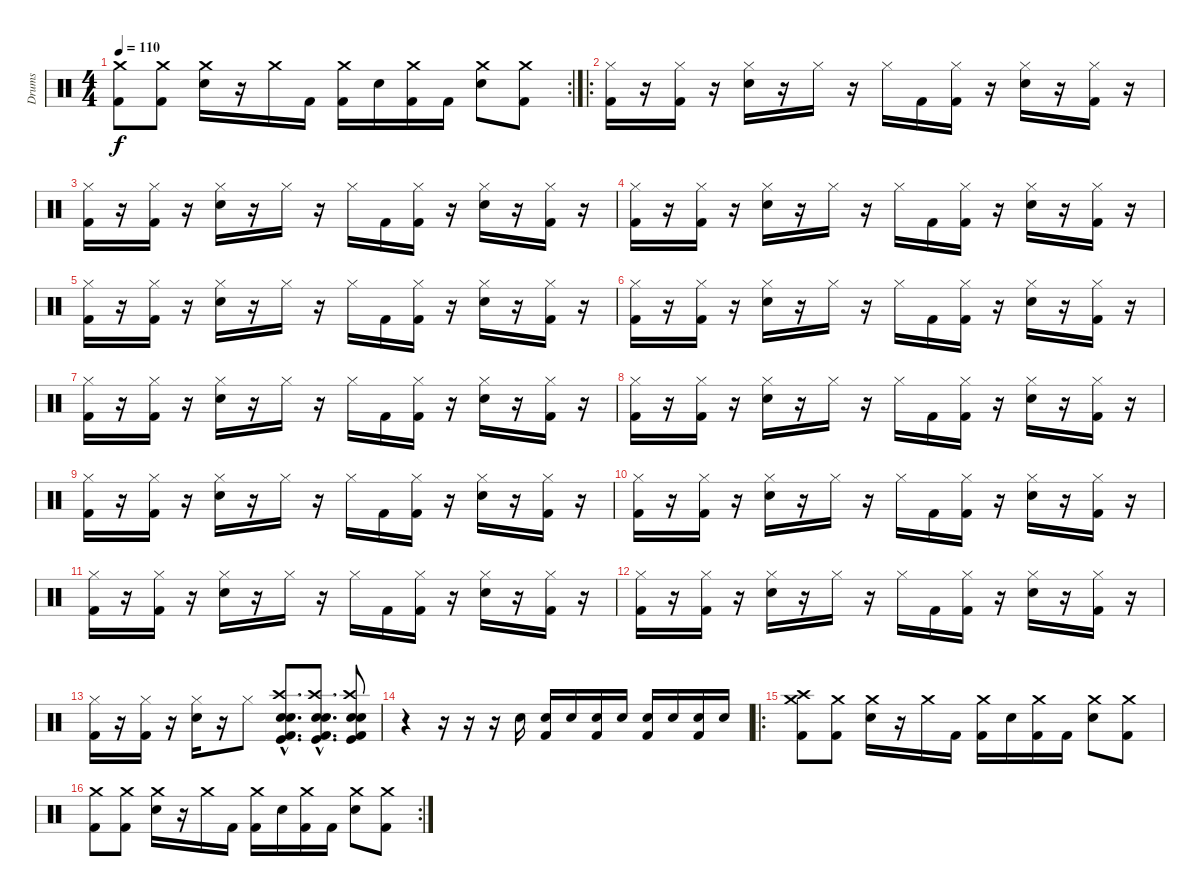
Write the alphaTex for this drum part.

\track ("Drums" "Drums") {instrument percussion}
\staff {score}
\articulation defaults
\rc 2
\ts (4 4)
\tempo 110
\clef neutral
\ks c
("Crash medium (hit)" "Kick (hit) 2").8{dy f} ("Crash medium (hit)" "Kick (hit) 2").8 ("Crash medium (hit)" "Electric Snare (hit)").16 r.16 "Crash medium (hit)".16 "Kick (hit) 2".16 ("Crash medium (hit)" "Kick (hit) 2").16 "Electric Snare (hit)".16 ("Crash medium (hit)" "Kick (hit) 2").16 "Kick (hit) 2".16 ("Crash medium (hit)" "Electric Snare (hit)").8 ("Crash medium (hit)" "Kick (hit) 2").8 |
\ro
("Hi-Hat (closed)" "Kick (hit) 2").16 r.16 ("Hi-Hat (closed)" "Kick (hit) 2").16 r.16 ("Hi-Hat (closed)" "Electric Snare (hit)").16 r.16 "Hi-Hat (closed)".16 r.16 "Hi-Hat (closed)".16 "Kick (hit) 2".16 ("Hi-Hat (closed)" "Kick (hit) 2").16 r.16 ("Hi-Hat (closed)" "Electric Snare (hit)").16 r.16 ("Hi-Hat (closed)" "Kick (hit) 2").16 r.16 |
("Hi-Hat (closed)" "Kick (hit) 2").16 r.16 ("Hi-Hat (closed)" "Kick (hit) 2").16 r.16 ("Hi-Hat (closed)" "Electric Snare (hit)").16 r.16 "Hi-Hat (closed)".16 r.16 "Hi-Hat (closed)".16 "Kick (hit) 2".16 ("Hi-Hat (closed)" "Kick (hit) 2").16 r.16 ("Hi-Hat (closed)" "Electric Snare (hit)").16 r.16 ("Hi-Hat (closed)" "Kick (hit) 2").16 r.16 |
("Hi-Hat (closed)" "Kick (hit) 2").16 r.16 ("Hi-Hat (closed)" "Kick (hit) 2").16 r.16 ("Hi-Hat (closed)" "Electric Snare (hit)").16 r.16 "Hi-Hat (closed)".16 r.16 "Hi-Hat (closed)".16 "Kick (hit) 2".16 ("Hi-Hat (closed)" "Kick (hit) 2").16 r.16 ("Hi-Hat (closed)" "Electric Snare (hit)").16 r.16 ("Hi-Hat (closed)" "Kick (hit) 2").16 r.16 |
("Hi-Hat (closed)" "Kick (hit) 2").16 r.16 ("Hi-Hat (closed)" "Kick (hit) 2").16 r.16 ("Hi-Hat (closed)" "Electric Snare (hit)").16 r.16 "Hi-Hat (closed)".16 r.16 "Hi-Hat (closed)".16 "Kick (hit) 2".16 ("Hi-Hat (closed)" "Kick (hit) 2").16 r.16 ("Hi-Hat (closed)" "Electric Snare (hit)").16 r.16 ("Hi-Hat (closed)" "Kick (hit) 2").16 r.16 |
("Hi-Hat (closed)" "Kick (hit) 2").16 r.16 ("Hi-Hat (closed)" "Kick (hit) 2").16 r.16 ("Hi-Hat (closed)" "Electric Snare (hit)").16 r.16 "Hi-Hat (closed)".16 r.16 "Hi-Hat (closed)".16 "Kick (hit) 2".16 ("Hi-Hat (closed)" "Kick (hit) 2").16 r.16 ("Hi-Hat (closed)" "Electric Snare (hit)").16 r.16 ("Hi-Hat (closed)" "Kick (hit) 2").16 r.16 |
("Hi-Hat (closed)" "Kick (hit) 2").16 r.16 ("Hi-Hat (closed)" "Kick (hit) 2").16 r.16 ("Hi-Hat (closed)" "Electric Snare (hit)").16 r.16 "Hi-Hat (closed)".16 r.16 "Hi-Hat (closed)".16 "Kick (hit) 2".16 ("Hi-Hat (closed)" "Kick (hit) 2").16 r.16 ("Hi-Hat (closed)" "Electric Snare (hit)").16 r.16 ("Hi-Hat (closed)" "Kick (hit) 2").16 r.16 |
("Hi-Hat (closed)" "Kick (hit) 2").16 r.16 ("Hi-Hat (closed)" "Kick (hit) 2").16 r.16 ("Hi-Hat (closed)" "Electric Snare (hit)").16 r.16 "Hi-Hat (closed)".16 r.16 "Hi-Hat (closed)".16 "Kick (hit) 2".16 ("Hi-Hat (closed)" "Kick (hit) 2").16 r.16 ("Hi-Hat (closed)" "Electric Snare (hit)").16 r.16 ("Hi-Hat (closed)" "Kick (hit) 2").16 r.16 |
("Hi-Hat (closed)" "Kick (hit) 2").16 r.16 ("Hi-Hat (closed)" "Kick (hit) 2").16 r.16 ("Hi-Hat (closed)" "Electric Snare (hit)").16 r.16 "Hi-Hat (closed)".16 r.16 "Hi-Hat (closed)".16 "Kick (hit) 2".16 ("Hi-Hat (closed)" "Kick (hit) 2").16 r.16 ("Hi-Hat (closed)" "Electric Snare (hit)").16 r.16 ("Hi-Hat (closed)" "Kick (hit) 2").16 r.16 |
("Hi-Hat (closed)" "Kick (hit) 2").16 r.16 ("Hi-Hat (closed)" "Kick (hit) 2").16 r.16 ("Hi-Hat (closed)" "Electric Snare (hit)").16 r.16 "Hi-Hat (closed)".16 r.16 "Hi-Hat (closed)".16 "Kick (hit) 2".16 ("Hi-Hat (closed)" "Kick (hit) 2").16 r.16 ("Hi-Hat (closed)" "Electric Snare (hit)").16 r.16 ("Hi-Hat (closed)" "Kick (hit) 2").16 r.16 |
("Hi-Hat (closed)" "Kick (hit) 2").16 r.16 ("Hi-Hat (closed)" "Kick (hit) 2").16 r.16 ("Hi-Hat (closed)" "Electric Snare (hit)").16 r.16 "Hi-Hat (closed)".16 r.16 "Hi-Hat (closed)".16 "Kick (hit) 2".16 ("Hi-Hat (closed)" "Kick (hit) 2").16 r.16 ("Hi-Hat (closed)" "Electric Snare (hit)").16 r.16 ("Hi-Hat (closed)" "Kick (hit) 2").16 r.16 |
("Hi-Hat (closed)" "Kick (hit) 2").16 r.16 ("Hi-Hat (closed)" "Kick (hit) 2").16 r.16 ("Hi-Hat (closed)" "Electric Snare (hit)").16 r.16 "Hi-Hat (closed)".16 r.16 "Hi-Hat (closed)".16 "Kick (hit) 2".16 ("Hi-Hat (closed)" "Kick (hit) 2").16 r.16 ("Hi-Hat (closed)" "Electric Snare (hit)").16 r.16 ("Hi-Hat (closed)" "Kick (hit) 2").16 r.16 |
("Hi-Hat (closed)" "Kick (hit) 2").16 r.16 ("Hi-Hat (closed)" "Kick (hit) 2").16 r.16 ("Hi-Hat (closed)" "Electric Snare (hit)").16 r.16 "Hi-Hat (closed)".8 ("Crash high (hit)"{hac} "Kick (hit)"{hac} "Kick (hit) 2"{hac} "Snare (hit) 2"{hac} "Electric Snare (hit)"{hac}).8{d} ("Crash high (hit)"{hac} "Kick (hit)"{hac} "Kick (hit) 2"{hac} "Snare (hit) 2"{hac} "Electric Snare (hit)"{hac}).8{d} ("Crash high (hit)" "Kick (hit)" "Kick (hit) 2" "Snare (hit) 2" "Electric Snare (hit)").8 |
r.4 r.16 r.16 r.16 "Electric Snare (hit)".16 ("Kick (hit) 2" "Electric Snare (hit)").16 "Electric Snare (hit)".16 ("Kick (hit) 2" "Electric Snare (hit)").16 "Electric Snare (hit)".16 ("Kick (hit) 2" "Electric Snare (hit)").16 "Electric Snare (hit)".16 ("Kick (hit) 2" "Electric Snare (hit)").16 "Electric Snare (hit)".16 |
\ro
("Crash high (hit)" "Crash medium (hit)" "Kick (hit) 2").8 ("Crash medium (hit)" "Kick (hit) 2").8 ("Crash medium (hit)" "Electric Snare (hit)").16 r.16 "Crash medium (hit)".16 "Kick (hit) 2".16 ("Crash medium (hit)" "Kick (hit) 2").16 "Electric Snare (hit)".16 ("Crash medium (hit)" "Kick (hit) 2").16 "Kick (hit) 2".16 ("Crash medium (hit)" "Electric Snare (hit)").8 ("Crash medium (hit)" "Kick (hit) 2").8 |
\rc 2
("Crash medium (hit)" "Kick (hit) 2").8 ("Crash medium (hit)" "Kick (hit) 2").8 ("Crash medium (hit)" "Electric Snare (hit)").16 r.16 "Crash medium (hit)".16 "Kick (hit) 2".16 ("Crash medium (hit)" "Kick (hit) 2").16 "Electric Snare (hit)".16 ("Crash medium (hit)" "Kick (hit) 2").16 "Kick (hit) 2".16 ("Crash medium (hit)" "Electric Snare (hit)").8 ("Crash medium (hit)" "Kick (hit) 2").8
